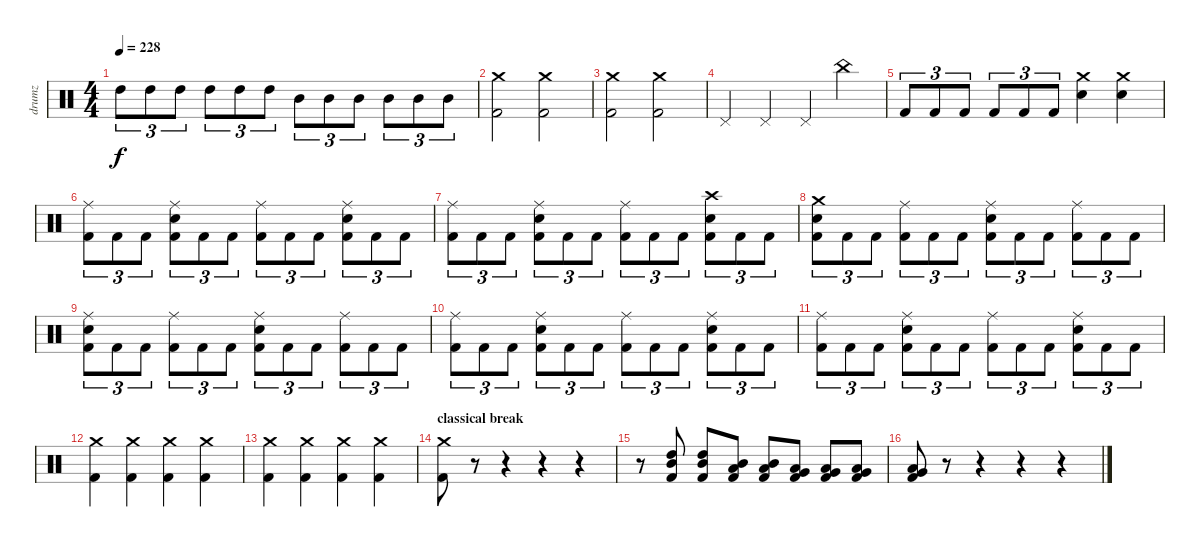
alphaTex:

\track ("drumz" "drumz") {instrument percussion}
\staff {score}
\articulation defaults
\ts (4 4)
\tempo 228
\clef neutral
\ks c "High Tom (hit)".8{tu (3 2) dy f} "High Tom (hit)".8{tu (3 2)} "High Tom (hit)".8{tu (3 2)} "High Tom (hit)".8{tu (3 2)} "High Tom (hit)".8{tu (3 2)} "High Tom (hit)".8{tu (3 2)} "Mid Tom (hit)".8{tu (3 2)} "Mid Tom (hit)".8{tu (3 2)} "Mid Tom (hit)".8{tu (3 2)} "Mid Tom (hit)".8{tu (3 2)} "Mid Tom (hit)".8{tu (3 2)} "Mid Tom (hit)".8{tu (3 2)}
|
("Crash medium (hit)" "Kick (hit) 2").2 ("Crash medium (hit)" "Kick (hit) 2").2 |
("Crash medium (hit)" "Kick (hit) 2").2 ("Crash medium (hit)" "Kick (hit) 2").2 |
"Pedal Hi-Hat (hit)".4 "Pedal Hi-Hat (hit)".4 "Pedal Hi-Hat (hit)".4 "China (hit)".4 |
"Kick (hit) 2".8{tu (3 2)} "Kick (hit) 2".8{tu (3 2)} "Kick (hit) 2".8{tu (3 2)} "Kick (hit) 2".8{tu (3 2)} "Kick (hit) 2".8{tu (3 2)} "Kick (hit) 2".8{tu (3 2)} ("Crash medium (hit)" "Snare (hit) 2").4 ("Crash medium (hit)" "Snare (hit) 2").4 |
("Ride (middle)" "Kick (hit) 2").8{tu (3 2)} "Kick (hit) 2".8{tu (3 2)} "Kick (hit) 2".8{tu (3 2)} ("Ride (middle)" "Snare (hit) 2" "Kick (hit) 2").8{tu (3 2)} "Kick (hit) 2".8{tu (3 2)} "Kick (hit) 2".8{tu (3 2)} ("Ride (middle)" "Kick (hit) 2").8{tu (3 2)} "Kick (hit) 2".8{tu (3 2)} "Kick (hit) 2".8{tu (3 2)} ("Ride (middle)" "Snare (hit) 2" "Kick (hit) 2").8{tu (3 2)} "Kick (hit) 2".8{tu (3 2)} "Kick (hit) 2".8{tu (3 2)} |
("Ride (middle)" "Kick (hit) 2").8{tu (3 2)} "Kick (hit) 2".8{tu (3 2)} "Kick (hit) 2".8{tu (3 2)} ("Ride (middle)" "Snare (hit) 2" "Kick (hit) 2").8{tu (3 2)} "Kick (hit) 2".8{tu (3 2)} "Kick (hit) 2".8{tu (3 2)} ("Ride (middle)" "Kick (hit) 2").8{tu (3 2)} "Kick (hit) 2".8{tu (3 2)} "Kick (hit) 2".8{tu (3 2)} ("Crash high (hit)" "Snare (hit) 2" "Kick (hit) 2").8{tu (3 2)} "Kick (hit) 2".8{tu (3 2)} "Kick (hit) 2".8{tu (3 2)} |
("Crash medium (hit)" "Snare (hit) 2" "Kick (hit) 2").8{tu (3 2)} "Kick (hit) 2".8{tu (3 2)} "Kick (hit) 2".8{tu (3 2)} ("Ride (middle)" "Kick (hit) 2").8{tu (3 2)} "Kick (hit) 2".8{tu (3 2)} "Kick (hit) 2".8{tu (3 2)} ("Ride (middle)" "Snare (hit) 2" "Kick (hit) 2").8{tu (3 2)} "Kick (hit) 2".8{tu (3 2)} "Kick (hit) 2".8{tu (3 2)} ("Ride (middle)" "Kick (hit) 2").8{tu (3 2)} "Kick (hit) 2".8{tu (3 2)} "Kick (hit) 2".8{tu (3 2)} |
("Ride (middle)" "Snare (hit) 2" "Kick (hit) 2").8{tu (3 2)} "Kick (hit) 2".8{tu (3 2)} "Kick (hit) 2".8{tu (3 2)} ("Ride (middle)" "Kick (hit) 2").8{tu (3 2)} "Kick (hit) 2".8{tu (3 2)} "Kick (hit) 2".8{tu (3 2)} ("Ride (middle)" "Snare (hit) 2" "Kick (hit) 2").8{tu (3 2)} "Kick (hit) 2".8{tu (3 2)} "Kick (hit) 2".8{tu (3 2)} ("Ride (middle)" "Kick (hit) 2").8{tu (3 2)} "Kick (hit) 2".8{tu (3 2)} "Kick (hit) 2".8{tu (3 2)} |
("Ride (middle)" "Kick (hit) 2").8{tu (3 2)} "Kick (hit) 2".8{tu (3 2)} "Kick (hit) 2".8{tu (3 2)} ("Ride (middle)" "Snare (hit) 2" "Kick (hit) 2").8{tu (3 2)} "Kick (hit) 2".8{tu (3 2)} "Kick (hit) 2".8{tu (3 2)} ("Ride (middle)" "Kick (hit) 2").8{tu (3 2)} "Kick (hit) 2".8{tu (3 2)} "Kick (hit) 2".8{tu (3 2)} ("Ride (middle)" "Snare (hit) 2" "Kick (hit) 2").8{tu (3 2)} "Kick (hit) 2".8{tu (3 2)} "Kick (hit) 2".8{tu (3 2)} |
("Ride (middle)" "Kick (hit) 2").8{tu (3 2)} "Kick (hit) 2".8{tu (3 2)} "Kick (hit) 2".8{tu (3 2)} ("Ride (middle)" "Snare (hit) 2" "Kick (hit) 2").8{tu (3 2)} "Kick (hit) 2".8{tu (3 2)} "Kick (hit) 2".8{tu (3 2)} ("Ride (middle)" "Kick (hit) 2").8{tu (3 2)} "Kick (hit) 2".8{tu (3 2)} "Kick (hit) 2".8{tu (3 2)} ("Ride (middle)" "Snare (hit) 2" "Kick (hit) 2").8{tu (3 2)} "Kick (hit) 2".8{tu (3 2)} "Kick (hit) 2".8{tu (3 2)} |
("Crash medium (hit)" "Kick (hit) 2").4 ("Crash medium (hit)" "Kick (hit) 2").4 ("Crash medium (hit)" "Kick (hit) 2").4 ("Crash medium (hit)" "Kick (hit) 2").4 |
("Crash medium (hit)" "Kick (hit) 2").4 ("Crash medium (hit)" "Kick (hit) 2").4 ("Crash medium (hit)" "Kick (hit) 2").4 ("Crash medium (hit)" "Kick (hit) 2").4 |
\section ("" "classical break")
("Crash medium (hit)" "Kick (hit) 2").8 r.8 r.4 r.4 r.4 |
r.8 ("High Tom (hit)" "Mid Tom (hit)" "Kick (hit) 2").8 ("High Tom (hit)" "Mid Tom (hit)" "Kick (hit) 2").8 ("Mid Tom (hit)" "Low Tom (hit)" "Kick (hit) 2").8 ("Mid Tom (hit)" "Low Tom (hit)" "Kick (hit) 2").8 ("Low Tom (hit)" "Very Low Tom (hit)" "Kick (hit) 2").8 ("Low Tom (hit)" "Very Low Tom (hit)" "Kick (hit) 2").8 ("Very Low Tom (hit)" "Low Floor Tom (hit)" "Kick (hit) 2").8 |
("Very Low Tom (hit)" "Low Floor Tom (hit)" "Kick (hit) 2").8 r.8 r.4 r.4 r.4
